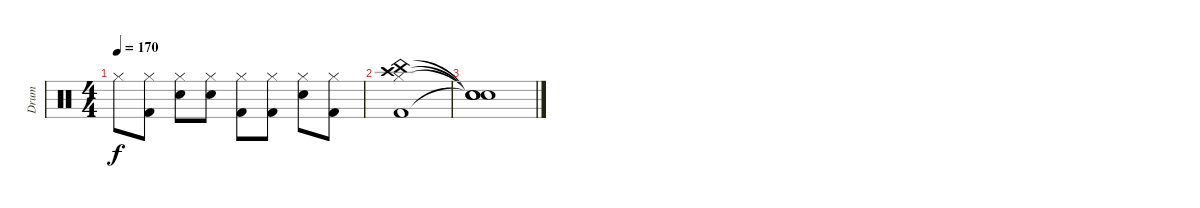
\track ("Drum" "Drum") {instrument percussion}
\staff {score}
\articulation defaults
\ts (4 4)
\tempo 170
\clef neutral
\ks c "Hi-Hat (closed)".8{dy f}
("Hi-Hat (closed)" "Kick (hit) 2").8 ("Hi-Hat (closed)" "Electric Snare (hit)").8 ("Hi-Hat (closed)" "Electric Snare (hit)").8 ("Hi-Hat (closed)" "Kick (hit) 2").8 ("Hi-Hat (closed)" "Kick (hit) 2").8 ("Hi-Hat (closed)" "Electric Snare (hit)").8 ("Hi-Hat (closed)" "Kick (hit) 2").8 |
("China (hit)" "Crash high (hit)" "Hi-Hat (closed)" "Kick (hit) 2").1 |
("Snare (hit)"{t} "Snare (hit)"{t} "Snare (hit)"{t} "Snare (hit)"{t}).1
